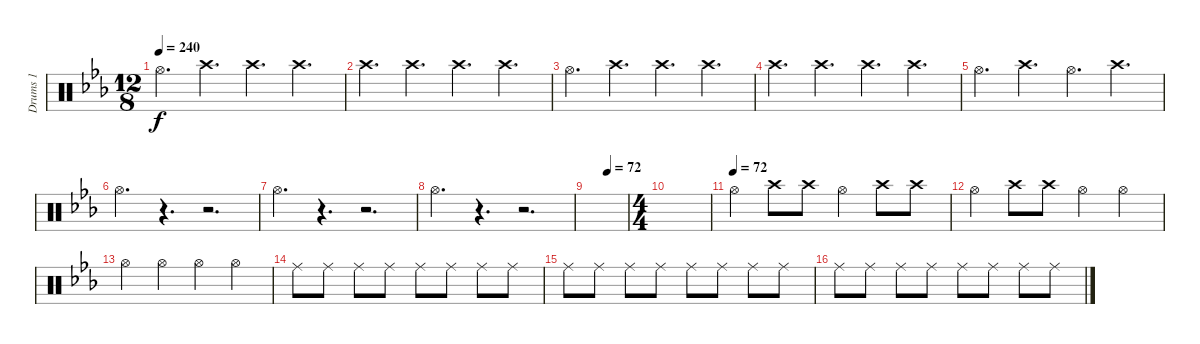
\track ("Drums 1" "Drums 1") {instrument percussion}
\staff {score}
\articulation defaults
\ts (12 8)
\tempo 240
\clef neutral
\ks eb "Hi-Hat (open)".4{d dy f} "Crash high (hit)".4{d} "Crash high (hit)".4{d} "Crash high (hit)".4{d}
|
"Crash high (hit)".4{d} "Crash high (hit)".4{d} "Crash high (hit)".4{d} "Crash high (hit)".4{d} |
"Hi-Hat (open)".4{d} "Crash high (hit)".4{d} "Crash high (hit)".4{d} "Crash high (hit)".4{d} |
"Crash high (hit)".4{d} "Crash high (hit)".4{d} "Crash high (hit)".4{d} "Crash high (hit)".4{d} |
"Hi-Hat (open)".4{d} "Crash high (hit)".4{d} "Hi-Hat (open)".4{d} "Crash high (hit)".4{d} |
"Hi-Hat (open)".4{d} r.4{d} r.2{d} |
"Hi-Hat (open)".4{d} r.4{d} r.2{d} |
"Hi-Hat (open)".4{d} r.4{d} r.2{d} |
\tempo (72 0.5)
|
\ts (4 4)
|
\tempo (72)
"Hi-Hat (open)".4 "Crash high (hit)".8 "Crash high (hit)".8 "Hi-Hat (open)".4 "Crash high (hit)".8 "Crash high (hit)".8 |
"Hi-Hat (open)".4 "Crash high (hit)".8 "Crash high (hit)".8 "Hi-Hat (open)".4 "Hi-Hat (open)".4 |
"Hi-Hat (open)".4 "Hi-Hat (open)".4 "Hi-Hat (open)".4 "Hi-Hat (open)".4 |
"Ride (middle)".8 "Ride (middle)".8 "Ride (middle)".8 "Ride (middle)".8 "Ride (middle)".8 "Ride (middle)".8 "Ride (middle)".8 "Ride (middle)".8 |
"Ride (middle)".8 "Ride (middle)".8 "Ride (middle)".8 "Ride (middle)".8 "Ride (middle)".8 "Ride (middle)".8 "Ride (middle)".8 "Ride (middle)".8 |
"Ride (middle)".8 "Ride (middle)".8 "Ride (middle)".8 "Ride (middle)".8 "Ride (middle)".8 "Ride (middle)".8 "Ride (middle)".8 "Ride (middle)".8
